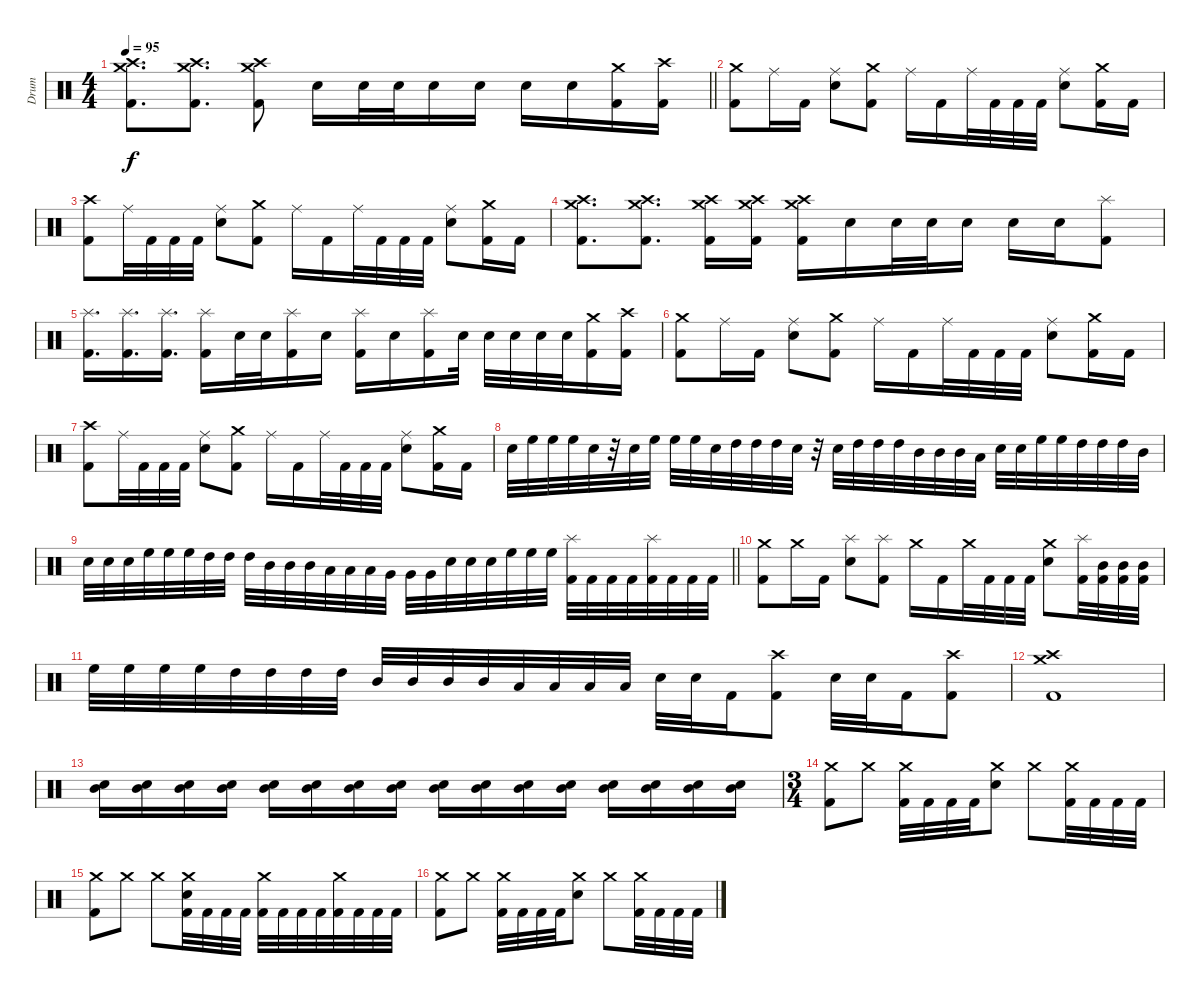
\track ("Drum" "Drum") {instrument percussion}
\staff {score}
\articulation defaults
\ts (4 4)
\tempo 95
\clef neutral
\barLineRight lightlight
\ks c
("Crash medium (hit)" "Crash high (hit)" "Kick (hit) 2").8{d dy f} ("Crash medium (hit)" "Crash high (hit)" "Kick (hit) 2").8{d} ("Crash medium (hit)" "Crash high (hit)" "Kick (hit) 2").8 "Electric Snare (hit)".16 "Electric Snare (hit)".32 "Electric Snare (hit)".32 "Electric Snare (hit)".16 "Electric Snare (hit)".16 "Electric Snare (hit)".16 "Electric Snare (hit)".16 ("Crash medium (hit)" "Kick (hit) 2").16 ("Crash high (hit)" "Kick (hit) 2").16 |
("Crash medium (hit)" "Kick (hit) 2").8 "Ride (middle)".16 "Kick (hit) 2".16 ("Ride (middle)" "Electric Snare (hit)").8 ("Crash medium (hit)" "Kick (hit) 2").8 "Ride (middle)".16 "Kick (hit) 2".16 "Ride (middle)".32 "Kick (hit) 2".32 "Kick (hit) 2".32 "Kick (hit) 2".32 ("Ride (middle)" "Electric Snare (hit)").8 ("Crash medium (hit)" "Kick (hit) 2").16 "Kick (hit) 2".16 |
("Crash high (hit)" "Kick (hit) 2").8 "Ride (middle)".32 "Kick (hit) 2".32 "Kick (hit) 2".32 "Kick (hit) 2".32 ("Ride (middle)" "Electric Snare (hit)").8 ("Crash medium (hit)" "Kick (hit) 2").8 "Ride (middle)".16 "Kick (hit) 2".16 "Ride (middle)".32 "Kick (hit) 2".32 "Kick (hit) 2".32 "Kick (hit) 2".32 ("Ride (middle)" "Electric Snare (hit)").8 ("Crash medium (hit)" "Kick (hit) 2").16 "Kick (hit) 2".16 |
("Crash medium (hit)" "Crash high (hit)" "Kick (hit) 2").8{d} ("Crash medium (hit)" "Crash high (hit)" "Kick (hit) 2").8{d} ("Crash medium (hit)" "Crash high (hit)" "Kick (hit) 2").16 ("Crash medium (hit)" "Crash high (hit)" "Kick (hit) 2").16 ("Crash medium (hit)" "Crash high (hit)" "Kick (hit) 2").16 "Electric Snare (hit)".16 "Electric Snare (hit)".32 "Electric Snare (hit)".32 "Electric Snare (hit)".16 "Electric Snare (hit)".16 "Electric Snare (hit)".16 ("Splash (hit)" "Kick (hit) 2").8 |
("Splash (hit)" "Kick (hit) 2").16{d} ("Splash (hit)" "Kick (hit) 2").16{d} ("Splash (hit)" "Kick (hit) 2").16{d} ("Splash (hit)" "Kick (hit) 2").16 "Electric Snare (hit)".32 "Electric Snare (hit)".32 ("Splash (hit)" "Kick (hit) 2").16 "Electric Snare (hit)".16 ("Splash (hit)" "Kick (hit) 2").16 "Electric Snare (hit)".16 ("Splash (hit)" "Kick (hit) 2").16 "Electric Snare (hit)".32 "Electric Snare (hit)".32 "Electric Snare (hit)".32 "Electric Snare (hit)".32 "Electric Snare (hit)".32 ("Crash medium (hit)" "Kick (hit) 2").16 ("Crash high (hit)" "Kick (hit) 2").16 |
("Crash medium (hit)" "Kick (hit) 2").8 "Ride (middle)".16 "Kick (hit) 2".16 ("Ride (middle)" "Electric Snare (hit)").8 ("Crash medium (hit)" "Kick (hit) 2").8 "Ride (middle)".16 "Kick (hit) 2".16 "Ride (middle)".32 "Kick (hit) 2".32 "Kick (hit) 2".32 "Kick (hit) 2".32 ("Ride (middle)" "Electric Snare (hit)").8 ("Crash medium (hit)" "Kick (hit) 2").16 "Kick (hit) 2".16 |
("Crash high (hit)" "Kick (hit) 2").8 "Ride (middle)".32 "Kick (hit) 2".32 "Kick (hit) 2".32 "Kick (hit) 2".32 ("Ride (middle)" "Electric Snare (hit)").8 ("Crash medium (hit)" "Kick (hit) 2").8 "Ride (middle)".16 "Kick (hit) 2".16 "Ride (middle)".32 "Kick (hit) 2".32 "Kick (hit) 2".32 "Kick (hit) 2".32 ("Ride (middle)" "Electric Snare (hit)").8 ("Crash medium (hit)" "Kick (hit) 2").16 "Kick (hit) 2".16 |
"Electric Snare (hit)".32 "High Floor Tom (hit)".32 "High Floor Tom (hit)".32 "High Floor Tom (hit)".32 "Electric Snare (hit)".32 r.32 "Electric Snare (hit)".32 "High Floor Tom (hit)".32 "High Floor Tom (hit)".32 "High Floor Tom (hit)".32 "Electric Snare (hit)".32 "High Tom (hit)".32 "High Tom (hit)".32 "High Tom (hit)".32 "Electric Snare (hit)".32 r.32 "Electric Snare (hit)".32 "High Tom (hit)".32 "High Tom (hit)".32 "High Tom (hit)".32 "Mid Tom (hit)".32 "Mid Tom (hit)".32 "Mid Tom (hit)".32 "Low Tom (hit)".32 "Electric Snare (hit)".32 "Electric Snare (hit)".32 "High Floor Tom (hit)".32 "High Floor Tom (hit)".32 "High Tom (hit)".32 "High Tom (hit)".32 "High Tom (hit)".32 "Mid Tom (hit)".32 |
\barLineRight lightlight "Electric Snare (hit)".32 "Electric Snare (hit)".32 "Electric Snare (hit)".32 "High Floor Tom (hit)".32 "High Floor Tom (hit)".32 "High Floor Tom (hit)".32 "High Tom (hit)".32 "High Tom (hit)".32 "High Tom (hit)".32 "Mid Tom (hit)".32 "Mid Tom (hit)".32 "Mid Tom (hit)".32 "Low Tom (hit)".32 "Low Tom (hit)".32 "Low Tom (hit)".32 "Very Low Tom (hit)".32 "Very Low Tom (hit)".32 "Very Low Tom (hit)".32 "Electric Snare (hit)".32 "Electric Snare (hit)".32 "Electric Snare (hit)".32 "High Floor Tom (hit)".32 "High Floor Tom (hit)".32 "High Floor Tom (hit)".32
("Splash (hit)" "Kick (hit) 2").32 "Kick (hit) 2".32 "Kick (hit) 2".32 "Kick (hit) 2".32 ("Splash (hit)" "Kick (hit) 2").32 "Kick (hit) 2".32 "Kick (hit) 2".32 "Kick (hit) 2".32 |
("Crash medium (hit)" "Kick (hit) 2").8 "Crash medium (hit)".16 "Kick (hit) 2".16 ("Splash (hit)" "Electric Snare (hit)").8 ("Splash (hit)" "Kick (hit) 2").8 "Crash medium (hit)".16 "Kick (hit) 2".16 "Crash medium (hit)".32 "Kick (hit) 2".32 "Kick (hit) 2".32 "Kick (hit) 2".32 ("Crash medium (hit)" "Electric Snare (hit)").8 ("Splash (hit)" "Kick (hit) 2").32 ("Mid Tom (hit)" "Kick (hit) 2").32 ("Mid Tom (hit)" "Kick (hit) 2").32 ("Mid Tom (hit)" "Kick (hit) 2").32 |
"High Floor Tom (hit)".32 "High Floor Tom (hit)".32 "High Floor Tom (hit)".32 "High Floor Tom (hit)".32 "High Tom (hit)".32 "High Tom (hit)".32 "High Tom (hit)".32 "High Tom (hit)".32 "Mid Tom (hit)".32 "Mid Tom (hit)".32 "Mid Tom (hit)".32 "Mid Tom (hit)".32 "Low Tom (hit)".32 "Low Tom (hit)".32 "Low Tom (hit)".32 "Low Tom (hit)".32 "Electric Snare (hit)".32 "Electric Snare (hit)".32 "Kick (hit) 2".16 ("Crash high (hit)" "Kick (hit) 2").8 "Electric Snare (hit)".32 "Electric Snare (hit)".32 "Kick (hit) 2".16 ("Crash high (hit)" "Kick (hit) 2").8 |
("Crash medium (hit)" "Crash high (hit)" "Kick (hit) 2").1 |
("Electric Snare (hit)" "Mid Tom (hit)").16{volume 8} ("Electric Snare (hit)" "Mid Tom (hit)").16{volume 16} ("Electric Snare (hit)" "Mid Tom (hit)").16 ("Electric Snare (hit)" "Mid Tom (hit)").16 ("Electric Snare (hit)" "Mid Tom (hit)").16 ("Electric Snare (hit)" "Mid Tom (hit)").16 ("Electric Snare (hit)" "Mid Tom (hit)").16 ("Electric Snare (hit)" "Mid Tom (hit)").16 ("Electric Snare (hit)" "Mid Tom (hit)").16 ("Electric Snare (hit)" "Mid Tom (hit)").16 ("Electric Snare (hit)" "Mid Tom (hit)").16 ("Electric Snare (hit)" "Mid Tom (hit)").16 ("Electric Snare (hit)" "Mid Tom (hit)").16 ("Electric Snare (hit)" "Mid Tom (hit)").16 ("Electric Snare (hit)" "Mid Tom (hit)").16 ("Electric Snare (hit)" "Mid Tom (hit)").16 |
\ts (3 4)
("Crash medium (hit)" "Kick (hit) 2").8 "Crash medium (hit)".8 ("Crash medium (hit)" "Kick (hit) 2").32 "Kick (hit) 2".32 "Kick (hit) 2".32 "Kick (hit) 2".32 ("Crash medium (hit)" "Electric Snare (hit)").8 "Crash medium (hit)".8 ("Crash medium (hit)" "Kick (hit) 2").32 "Kick (hit) 2".32 "Kick (hit) 2".32 "Kick (hit) 2".32 |
("Crash medium (hit)" "Kick (hit) 2").8 "Crash medium (hit)".8 "Crash medium (hit)".8 ("Crash medium (hit)" "Electric Snare (hit)" "Kick (hit) 2").32 "Kick (hit) 2".32 "Kick (hit) 2".32 "Kick (hit) 2".32 ("Crash medium (hit)" "Kick (hit) 2").32 "Kick (hit) 2".32 "Kick (hit) 2".32 "Kick (hit) 2".32 ("Crash medium (hit)" "Kick (hit) 2").32 "Kick (hit) 2".32 "Kick (hit) 2".32 "Kick (hit) 2".32 |
("Crash medium (hit)" "Kick (hit) 2").8 "Crash medium (hit)".8 ("Crash medium (hit)" "Kick (hit) 2").32 "Kick (hit) 2".32 "Kick (hit) 2".32 "Kick (hit) 2".32 ("Crash medium (hit)" "Electric Snare (hit)").8 "Crash medium (hit)".8 ("Crash medium (hit)" "Kick (hit) 2").32 "Kick (hit) 2".32 "Kick (hit) 2".32 "Kick (hit) 2".32
